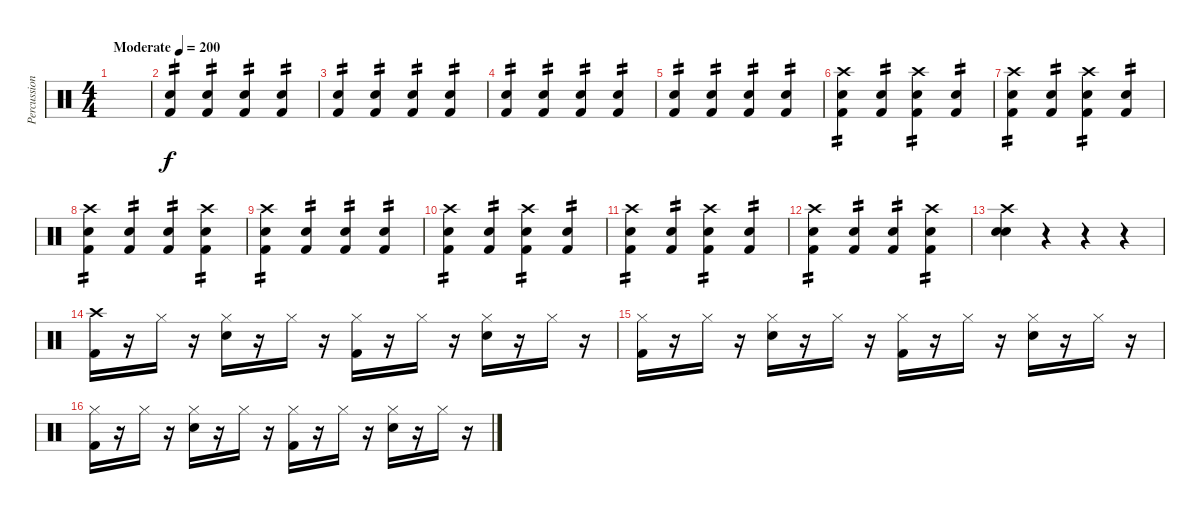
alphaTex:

\track ("Percussion" "Percussion") {instrument percussion}
\staff {score}
\articulation defaults
\ts (4 4)
\tempo (200 "Moderate")
\clef neutral
\ks c
|
("Electric Snare (hit)" "Kick (hit) 2").4{tp 2} ("Electric Snare (hit)" "Kick (hit) 2").4{tp 2} ("Electric Snare (hit)" "Kick (hit) 2").4{tp 2} ("Electric Snare (hit)" "Kick (hit) 2").4{tp 2} |
("Electric Snare (hit)" "Kick (hit) 2").4{tp 2} ("Electric Snare (hit)" "Kick (hit) 2").4{tp 2} ("Electric Snare (hit)" "Kick (hit) 2").4{tp 2} ("Electric Snare (hit)" "Kick (hit) 2").4{tp 2} |
("Electric Snare (hit)" "Kick (hit) 2").4{tp 2} ("Electric Snare (hit)" "Kick (hit) 2").4{tp 2} ("Electric Snare (hit)" "Kick (hit) 2").4{tp 2} ("Electric Snare (hit)" "Kick (hit) 2").4{tp 2} |
("Electric Snare (hit)" "Kick (hit) 2").4{tp 2} ("Electric Snare (hit)" "Kick (hit) 2").4{tp 2} ("Electric Snare (hit)" "Kick (hit) 2").4{tp 2} ("Electric Snare (hit)" "Kick (hit) 2").4{tp 2} |
("Crash high (hit)" "Electric Snare (hit)" "Kick (hit) 2").4{tp 2} ("Electric Snare (hit)" "Kick (hit) 2").4{tp 2} ("Crash high (hit)" "Electric Snare (hit)" "Kick (hit) 2").4{tp 2} ("Electric Snare (hit)" "Kick (hit) 2").4{tp 2} |
("Crash high (hit)" "Electric Snare (hit)" "Kick (hit) 2").4{tp 2} ("Electric Snare (hit)" "Kick (hit) 2").4{tp 2} ("Crash high (hit)" "Electric Snare (hit)" "Kick (hit) 2").4{tp 2} ("Electric Snare (hit)" "Kick (hit) 2").4{tp 2} |
("Crash high (hit)" "Electric Snare (hit)" "Kick (hit) 2").4{tp 2} ("Electric Snare (hit)" "Kick (hit) 2").4{tp 2} ("Electric Snare (hit)" "Kick (hit) 2").4{tp 2} ("Crash high (hit)" "Electric Snare (hit)" "Kick (hit) 2").4{tp 2} |
("Crash high (hit)" "Electric Snare (hit)" "Kick (hit) 2").4{tp 2} ("Electric Snare (hit)" "Kick (hit) 2").4{tp 2} ("Electric Snare (hit)" "Kick (hit) 2").4{tp 2} ("Electric Snare (hit)" "Kick (hit) 2").4{tp 2} |
("Crash high (hit)" "Electric Snare (hit)" "Kick (hit) 2").4{tp 2} ("Electric Snare (hit)" "Kick (hit) 2").4{tp 2} ("Crash high (hit)" "Electric Snare (hit)" "Kick (hit) 2").4{tp 2} ("Electric Snare (hit)" "Kick (hit) 2").4{tp 2} |
("Crash high (hit)" "Electric Snare (hit)" "Kick (hit) 2").4{tp 2} ("Electric Snare (hit)" "Kick (hit) 2").4{tp 2} ("Crash high (hit)" "Electric Snare (hit)" "Kick (hit) 2").4{tp 2} ("Electric Snare (hit)" "Kick (hit) 2").4{tp 2} |
("Crash high (hit)" "Electric Snare (hit)" "Kick (hit) 2").4{tp 2} ("Electric Snare (hit)" "Kick (hit) 2").4{tp 2} ("Electric Snare (hit)" "Kick (hit) 2").4{tp 2} ("Crash high (hit)" "Electric Snare (hit)" "Kick (hit) 2").4{tp 2} |
("Crash high (hit)" "Electric Snare (hit)" "Snare (hit)").4 r.4 r.4 r.4 |
("Crash high (hit)" "Kick (hit) 2").16 r.16 "Hi-Hat (closed)".16 r.16 ("Hi-Hat (closed)" "Electric Snare (hit)").16 r.16 "Hi-Hat (closed)".16 r.16 ("Hi-Hat (closed)" "Kick (hit) 2").16 r.16 "Hi-Hat (closed)".16 r.16 ("Hi-Hat (closed)" "Electric Snare (hit)").16 r.16 "Hi-Hat (closed)".16 r.16 |
("Hi-Hat (closed)" "Kick (hit) 2").16 r.16 "Hi-Hat (closed)".16 r.16 ("Hi-Hat (closed)" "Electric Snare (hit)").16 r.16 "Hi-Hat (closed)".16 r.16 ("Hi-Hat (closed)" "Kick (hit) 2").16 r.16 "Hi-Hat (closed)".16 r.16 ("Hi-Hat (closed)" "Electric Snare (hit)").16 r.16 "Hi-Hat (closed)".16 r.16 |
("Hi-Hat (closed)" "Kick (hit) 2").16 r.16 "Hi-Hat (closed)".16 r.16 ("Hi-Hat (closed)" "Electric Snare (hit)").16 r.16 "Hi-Hat (closed)".16 r.16 ("Hi-Hat (closed)" "Kick (hit) 2").16 r.16 "Hi-Hat (closed)".16 r.16 ("Hi-Hat (closed)" "Electric Snare (hit)").16 r.16 "Hi-Hat (closed)".16 r.16
